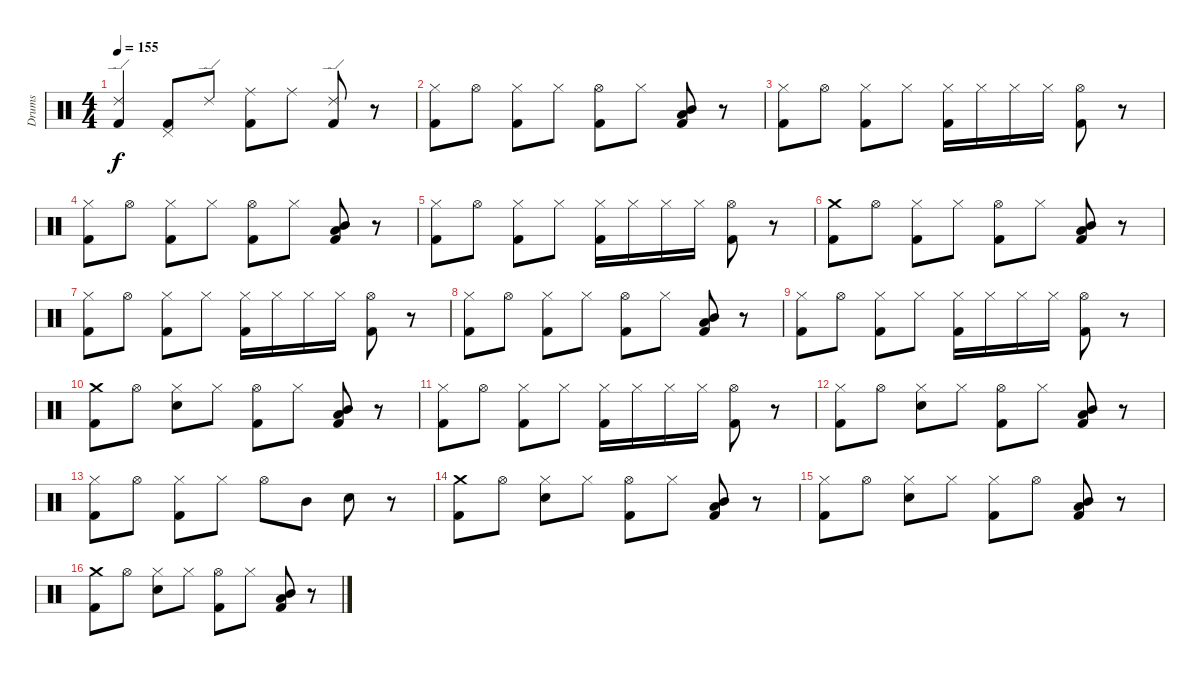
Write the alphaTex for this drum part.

\track ("Drums" "Drums") {instrument percussion}
\staff {score}
\articulation defaults
\ts (4 4)
\tempo 155
\clef neutral
\ks c
("Ride (edge) 2" "Kick (hit) 2").4{dy f} ("Pedal Hi-Hat (hit)" "Kick (hit) 2").8 "Ride (edge) 2".8 ("Ride (middle)" "Kick (hit) 2").8 "Ride (middle)".8 ("Ride (edge) 2" "Kick (hit) 2").8 r.8 |
("Hi-Hat (closed)" "Kick (hit) 2").8 "Hi-Hat (open)".8 ("Hi-Hat (closed)" "Kick (hit) 2").8 "Hi-Hat (closed)".8 ("Hi-Hat (open)" "Kick (hit) 2").8 "Hi-Hat (closed)".8 ("Kick (hit) 2" "Low Tom (hit)" "Mid Tom (hit)").8 r.8 |
("Hi-Hat (closed)" "Kick (hit) 2").8 "Hi-Hat (open)".8 ("Hi-Hat (closed)" "Kick (hit) 2").8 "Hi-Hat (closed)".8 ("Hi-Hat (closed)" "Kick (hit) 2").16 "Hi-Hat (closed)".16 "Hi-Hat (closed)".16 "Hi-Hat (closed)".16 ("Hi-Hat (open)" "Kick (hit) 2").8 r.8 |
("Hi-Hat (closed)" "Kick (hit) 2").8 "Hi-Hat (open)".8 ("Hi-Hat (closed)" "Kick (hit) 2").8 "Hi-Hat (closed)".8 ("Hi-Hat (open)" "Kick (hit) 2").8 "Hi-Hat (closed)".8 ("Kick (hit) 2" "Low Tom (hit)" "Mid Tom (hit)").8 r.8 |
("Hi-Hat (closed)" "Kick (hit) 2").8 "Hi-Hat (open)".8 ("Hi-Hat (closed)" "Kick (hit) 2").8 "Hi-Hat (closed)".8 ("Hi-Hat (closed)" "Kick (hit) 2").16 "Hi-Hat (closed)".16 "Hi-Hat (closed)".16 "Hi-Hat (closed)".16 ("Hi-Hat (open)" "Kick (hit) 2").8 r.8 |
("Crash medium (hit)" "Kick (hit) 2").8 "Hi-Hat (open)".8 ("Hi-Hat (closed)" "Kick (hit) 2").8 "Hi-Hat (closed)".8 ("Hi-Hat (open)" "Kick (hit) 2").8 "Hi-Hat (closed)".8 ("Kick (hit) 2" "Low Tom (hit)" "Mid Tom (hit)").8 r.8 |
("Hi-Hat (closed)" "Kick (hit) 2").8 "Hi-Hat (open)".8 ("Hi-Hat (closed)" "Kick (hit) 2").8 "Hi-Hat (closed)".8 ("Hi-Hat (closed)" "Kick (hit) 2").16 "Hi-Hat (closed)".16 "Hi-Hat (closed)".16 "Hi-Hat (closed)".16 ("Hi-Hat (open)" "Kick (hit) 2").8 r.8 |
("Hi-Hat (closed)" "Kick (hit) 2").8 "Hi-Hat (open)".8 ("Hi-Hat (closed)" "Kick (hit) 2").8 "Hi-Hat (closed)".8 ("Hi-Hat (open)" "Kick (hit) 2").8 "Hi-Hat (closed)".8 ("Kick (hit) 2" "Low Tom (hit)" "Mid Tom (hit)").8 r.8 |
("Hi-Hat (closed)" "Kick (hit) 2").8 "Hi-Hat (open)".8 ("Hi-Hat (closed)" "Kick (hit) 2").8 "Hi-Hat (closed)".8 ("Hi-Hat (closed)" "Kick (hit) 2").16 "Hi-Hat (closed)".16 "Hi-Hat (closed)".16 "Hi-Hat (closed)".16 ("Hi-Hat (open)" "Kick (hit) 2").8 r.8 |
("Crash medium (hit)" "Kick (hit) 2").8 "Hi-Hat (open)".8 ("Hi-Hat (closed)" "Electric Snare (hit)").8 "Hi-Hat (closed)".8 ("Hi-Hat (open)" "Kick (hit) 2").8 "Hi-Hat (closed)".8 ("Kick (hit) 2" "Low Tom (hit)" "Mid Tom (hit)").8 r.8 |
("Hi-Hat (closed)" "Kick (hit) 2").8 "Hi-Hat (open)".8 ("Hi-Hat (closed)" "Kick (hit) 2").8 "Hi-Hat (closed)".8 ("Hi-Hat (closed)" "Kick (hit) 2").16 "Hi-Hat (closed)".16 "Hi-Hat (closed)".16 "Hi-Hat (closed)".16 ("Hi-Hat (open)" "Kick (hit) 2").8 r.8 |
("Hi-Hat (closed)" "Kick (hit) 2").8 "Hi-Hat (open)".8 ("Hi-Hat (closed)" "Electric Snare (hit)").8 "Hi-Hat (closed)".8 ("Hi-Hat (open)" "Kick (hit) 2").8 "Hi-Hat (closed)".8 ("Kick (hit) 2" "Low Tom (hit)" "Mid Tom (hit)").8 r.8 |
("Hi-Hat (closed)" "Kick (hit) 2").8 "Hi-Hat (open)".8 ("Hi-Hat (closed)" "Kick (hit) 2").8 "Hi-Hat (closed)".8 "Hi-Hat (open)".8 "Mid Tom (hit)".8 "Electric Snare (hit)".8 r.8 |
("Crash medium (hit)" "Kick (hit) 2").8 "Hi-Hat (open)".8 ("Hi-Hat (closed)" "Electric Snare (hit)").8 "Hi-Hat (closed)".8 ("Hi-Hat (open)" "Kick (hit) 2").8 "Hi-Hat (closed)".8 ("Kick (hit) 2" "Low Tom (hit)" "Mid Tom (hit)").8 r.8 |
("Hi-Hat (closed)" "Kick (hit) 2").8 "Hi-Hat (open)".8 ("Hi-Hat (closed)" "Electric Snare (hit)").8 "Hi-Hat (closed)".8 ("Hi-Hat (closed)" "Kick (hit) 2").8 "Hi-Hat (open)".8 ("Kick (hit) 2" "Low Tom (hit)" "Mid Tom (hit)").8 r.8 |
("Crash medium (hit)" "Kick (hit) 2").8 "Hi-Hat (open)".8 ("Hi-Hat (closed)" "Electric Snare (hit)").8 "Hi-Hat (closed)".8 ("Hi-Hat (open)" "Kick (hit) 2").8 "Hi-Hat (closed)".8 ("Kick (hit) 2" "Low Tom (hit)" "Mid Tom (hit)").8 r.8
